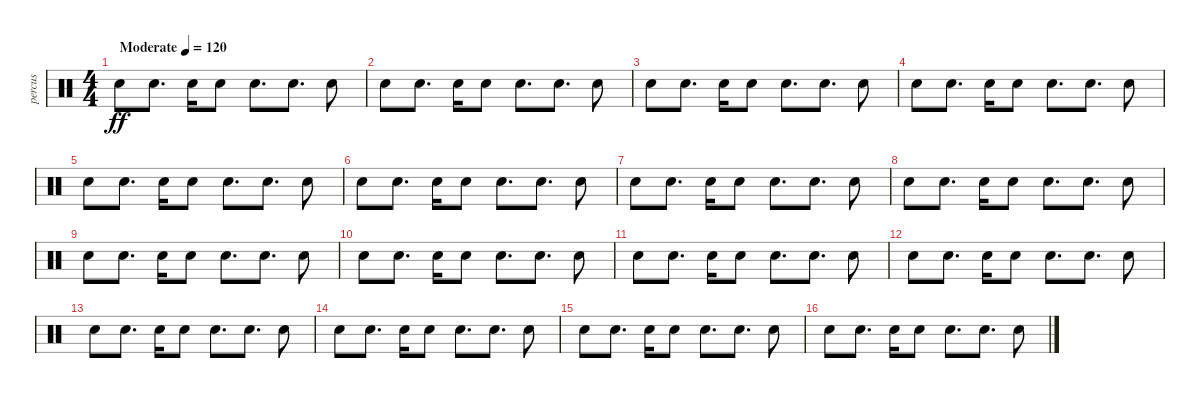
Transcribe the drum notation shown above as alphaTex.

\track ("percus" "percus") {instrument percussion}
\staff {score}
\articulation defaults
\ts (4 4)
\tempo (120 "Moderate")
\clef neutral
\ks c "Snare (hit)".8{dy ff} "Snare (hit)".8{d} "Snare (hit)".16 "Snare (hit)".8 "Snare (hit)".8{d} "Snare (hit)".8{d} "Snare (hit)".8
|
"Snare (hit)".8 "Snare (hit)".8{d} "Snare (hit)".16 "Snare (hit)".8 "Snare (hit)".8{d} "Snare (hit)".8{d} "Snare (hit)".8 |
"Snare (hit)".8 "Snare (hit)".8{d} "Snare (hit)".16 "Snare (hit)".8 "Snare (hit)".8{d} "Snare (hit)".8{d} "Snare (hit)".8 |
"Snare (hit)".8 "Snare (hit)".8{d} "Snare (hit)".16 "Snare (hit)".8 "Snare (hit)".8{d} "Snare (hit)".8{d} "Snare (hit)".8 |
"Snare (hit)".8 "Snare (hit)".8{d} "Snare (hit)".16 "Snare (hit)".8 "Snare (hit)".8{d} "Snare (hit)".8{d} "Snare (hit)".8 |
"Snare (hit)".8 "Snare (hit)".8{d} "Snare (hit)".16 "Snare (hit)".8 "Snare (hit)".8{d} "Snare (hit)".8{d} "Snare (hit)".8 |
"Snare (hit)".8 "Snare (hit)".8{d} "Snare (hit)".16 "Snare (hit)".8 "Snare (hit)".8{d} "Snare (hit)".8{d} "Snare (hit)".8 |
"Snare (hit)".8 "Snare (hit)".8{d} "Snare (hit)".16 "Snare (hit)".8 "Snare (hit)".8{d} "Snare (hit)".8{d} "Snare (hit)".8 |
"Snare (hit)".8 "Snare (hit)".8{d} "Snare (hit)".16 "Snare (hit)".8 "Snare (hit)".8{d} "Snare (hit)".8{d} "Snare (hit)".8 |
"Snare (hit)".8 "Snare (hit)".8{d} "Snare (hit)".16 "Snare (hit)".8 "Snare (hit)".8{d} "Snare (hit)".8{d} "Snare (hit)".8 |
"Snare (hit)".8 "Snare (hit)".8{d} "Snare (hit)".16 "Snare (hit)".8 "Snare (hit)".8{d} "Snare (hit)".8{d} "Snare (hit)".8 |
"Snare (hit)".8 "Snare (hit)".8{d} "Snare (hit)".16 "Snare (hit)".8 "Snare (hit)".8{d} "Snare (hit)".8{d} "Snare (hit)".8 |
"Snare (hit)".8 "Snare (hit)".8{d} "Snare (hit)".16 "Snare (hit)".8 "Snare (hit)".8{d} "Snare (hit)".8{d} "Snare (hit)".8 |
"Snare (hit)".8 "Snare (hit)".8{d} "Snare (hit)".16 "Snare (hit)".8 "Snare (hit)".8{d} "Snare (hit)".8{d} "Snare (hit)".8 |
"Snare (hit)".8 "Snare (hit)".8{d} "Snare (hit)".16 "Snare (hit)".8 "Snare (hit)".8{d} "Snare (hit)".8{d} "Snare (hit)".8 |
"Snare (hit)".8 "Snare (hit)".8{d} "Snare (hit)".16 "Snare (hit)".8 "Snare (hit)".8{d} "Snare (hit)".8{d} "Snare (hit)".8
